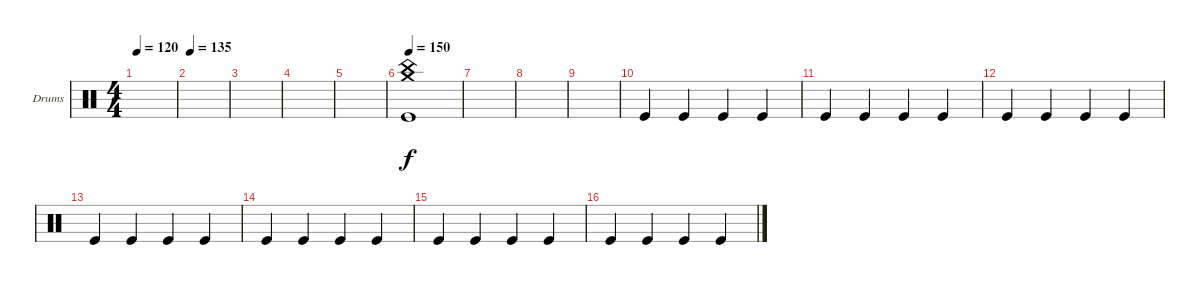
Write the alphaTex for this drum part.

\defaultSystemsLayout 4
\bracketExtendMode groupsimilarinstruments
\firstSystemTrackNameOrientation horizontal
\otherSystemsTrackNameOrientation horizontal
\track ("Drumkit" "Drums") {instrument percussion}
\staff {score}
\articulation defaults
\ts (4 4)
\tempo 120
\clef neutral
\ks c
|
\tempo 135
|
|
|
|
\tempo 150
("Crash medium (hit)" "China (hit)" "Kick (hit)").1 |
|
|
|
"Kick (hit)".4 "Kick (hit)".4 "Kick (hit)".4 "Kick (hit)".4 |
"Kick (hit)".4 "Kick (hit)".4 "Kick (hit)".4 "Kick (hit)".4 |
"Kick (hit)".4 "Kick (hit)".4 "Kick (hit)".4 "Kick (hit)".4 |
"Kick (hit)".4 "Kick (hit)".4 "Kick (hit)".4 "Kick (hit)".4 |
"Kick (hit)".4 "Kick (hit)".4 "Kick (hit)".4 "Kick (hit)".4 |
"Kick (hit)".4 "Kick (hit)".4 "Kick (hit)".4 "Kick (hit)".4 |
"Kick (hit)".4 "Kick (hit)".4 "Kick (hit)".4 "Kick (hit)".4
